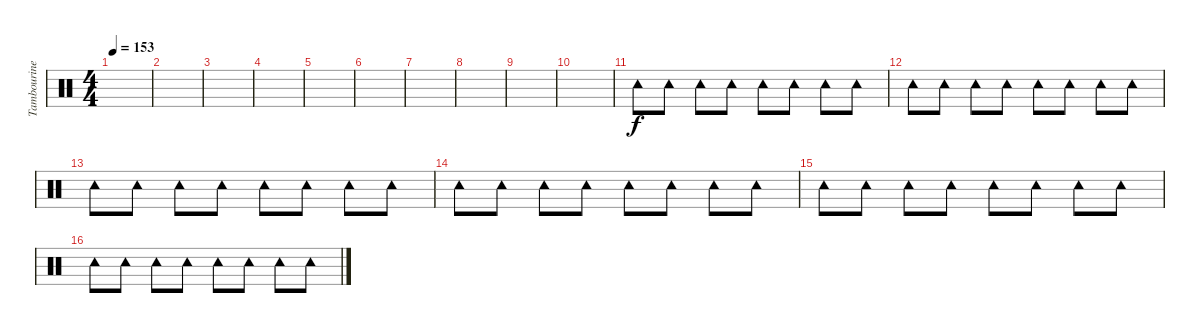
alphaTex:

\track ("Tambourine" "Tambourine") {instrument percussion}
\staff {score}
\articulation defaults
\ts (4 4)
\tempo 153
\clef neutral
\ks c
|
|
|
|
|
|
|
|
|
|
"Tambourine (hit)".8 "Tambourine (hit)".8 "Tambourine (hit)".8 "Tambourine (hit)".8 "Tambourine (hit)".8 "Tambourine (hit)".8 "Tambourine (hit)".8 "Tambourine (hit)".8 |
"Tambourine (hit)".8 "Tambourine (hit)".8 "Tambourine (hit)".8 "Tambourine (hit)".8 "Tambourine (hit)".8 "Tambourine (hit)".8 "Tambourine (hit)".8 "Tambourine (hit)".8 |
"Tambourine (hit)".8 "Tambourine (hit)".8 "Tambourine (hit)".8 "Tambourine (hit)".8 "Tambourine (hit)".8 "Tambourine (hit)".8 "Tambourine (hit)".8 "Tambourine (hit)".8 |
"Tambourine (hit)".8 "Tambourine (hit)".8 "Tambourine (hit)".8 "Tambourine (hit)".8 "Tambourine (hit)".8 "Tambourine (hit)".8 "Tambourine (hit)".8 "Tambourine (hit)".8 |
"Tambourine (hit)".8 "Tambourine (hit)".8 "Tambourine (hit)".8 "Tambourine (hit)".8 "Tambourine (hit)".8 "Tambourine (hit)".8 "Tambourine (hit)".8 "Tambourine (hit)".8 |
"Tambourine (hit)".8 "Tambourine (hit)".8 "Tambourine (hit)".8 "Tambourine (hit)".8 "Tambourine (hit)".8 "Tambourine (hit)".8 "Tambourine (hit)".8 "Tambourine (hit)".8
